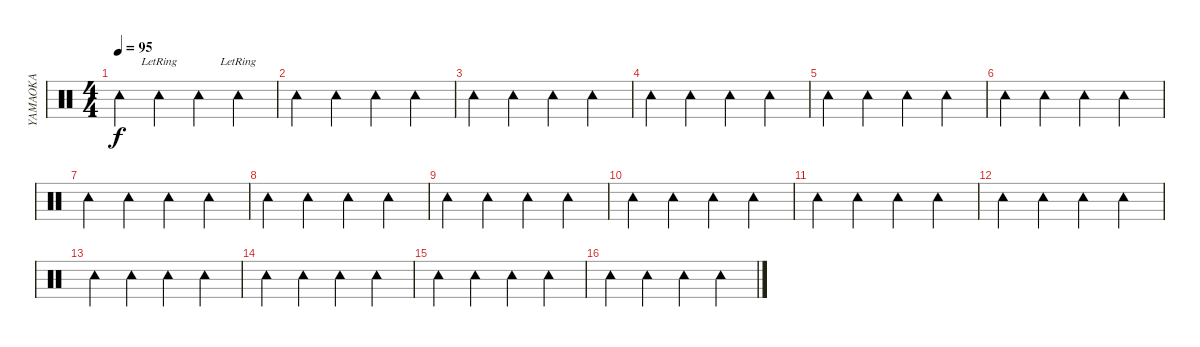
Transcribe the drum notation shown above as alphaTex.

\track ("YAMAOKA" "YAMAOKA") {instrument percussion}
\staff {score}
\articulation defaults
\ts (4 4)
\tempo 95
\clef neutral
\ks c "Tambourine (hit)"{x}.4{dy f} "Tambourine (hit)"{lr}.4 "Tambourine (hit)"{x}.4 "Tambourine (hit)"{lr}.4
|
"Tambourine (hit)"{x}.4 "Tambourine (hit)".4 "Tambourine (hit)"{x}.4 "Tambourine (hit)".4 |
"Tambourine (hit)"{x}.4 "Tambourine (hit)".4 "Tambourine (hit)"{x}.4 "Tambourine (hit)".4 |
"Tambourine (hit)"{x}.4 "Tambourine (hit)".4 "Tambourine (hit)"{x}.4 "Tambourine (hit)".4 |
"Tambourine (hit)"{x}.4 "Tambourine (hit)".4 "Tambourine (hit)"{x}.4 "Tambourine (hit)".4 |
"Tambourine (hit)"{x}.4 "Tambourine (hit)".4 "Tambourine (hit)"{x}.4 "Tambourine (hit)".4 |
"Tambourine (hit)"{x}.4 "Tambourine (hit)".4 "Tambourine (hit)"{x}.4 "Tambourine (hit)".4 |
"Tambourine (hit)"{x}.4 "Tambourine (hit)".4 "Tambourine (hit)"{x}.4 "Tambourine (hit)".4 |
"Tambourine (hit)"{x}.4 "Tambourine (hit)".4 "Tambourine (hit)"{x}.4 "Tambourine (hit)".4 |
"Tambourine (hit)"{x}.4 "Tambourine (hit)".4 "Tambourine (hit)"{x}.4 "Tambourine (hit)".4 |
"Tambourine (hit)"{x}.4 "Tambourine (hit)".4 "Tambourine (hit)"{x}.4 "Tambourine (hit)".4 |
"Tambourine (hit)"{x}.4 "Tambourine (hit)".4 "Tambourine (hit)"{x}.4 "Tambourine (hit)".4 |
"Tambourine (hit)"{x}.4 "Tambourine (hit)".4 "Tambourine (hit)"{x}.4 "Tambourine (hit)".4 |
"Tambourine (hit)"{x}.4 "Tambourine (hit)".4 "Tambourine (hit)"{x}.4 "Tambourine (hit)".4 |
"Tambourine (hit)"{x}.4 "Tambourine (hit)".4 "Tambourine (hit)"{x}.4 "Tambourine (hit)".4 |
"Tambourine (hit)"{x}.4 "Tambourine (hit)".4 "Tambourine (hit)"{x}.4 "Tambourine (hit)".4
